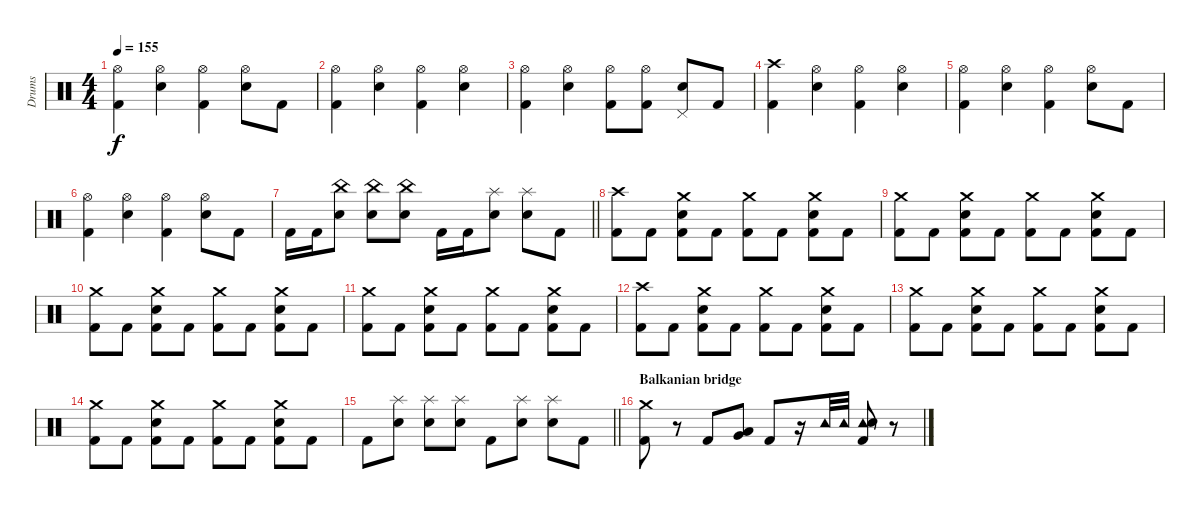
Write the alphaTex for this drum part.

\track ("Drums" "Drums") {instrument percussion}
\staff {score}
\articulation defaults
\ts (4 4)
\tempo 155
\clef neutral
\ks c
("Hi-Hat (open)" "Kick (hit) 2").4{dy f} ("Hi-Hat (open)" "Electric Snare (hit)").4 ("Hi-Hat (open)" "Kick (hit) 2").4 ("Hi-Hat (open)" "Electric Snare (hit)").8 "Kick (hit) 2".8 |
("Hi-Hat (open)" "Kick (hit) 2").4 ("Hi-Hat (open)" "Electric Snare (hit)").4 ("Hi-Hat (open)" "Kick (hit) 2").4 ("Hi-Hat (open)" "Electric Snare (hit)").4 |
("Hi-Hat (open)" "Kick (hit) 2").4 ("Hi-Hat (open)" "Electric Snare (hit)").4 ("Hi-Hat (open)" "Kick (hit) 2").8 ("Hi-Hat (open)" "Kick (hit) 2").8 ("Pedal Hi-Hat (hit)" "Electric Snare (hit)").8 "Kick (hit) 2".8 |
("Crash high (hit)" "Kick (hit) 2").4 ("Hi-Hat (open)" "Electric Snare (hit)").4 ("Hi-Hat (open)" "Kick (hit) 2").4 ("Hi-Hat (open)" "Electric Snare (hit)").4 |
("Hi-Hat (open)" "Kick (hit) 2").4 ("Hi-Hat (open)" "Electric Snare (hit)").4 ("Hi-Hat (open)" "Kick (hit) 2").4 ("Hi-Hat (open)" "Electric Snare (hit)").8 "Kick (hit) 2".8 |
("Hi-Hat (open)" "Kick (hit) 2").4 ("Hi-Hat (open)" "Electric Snare (hit)").4 ("Hi-Hat (open)" "Kick (hit) 2").4 ("Hi-Hat (open)" "Electric Snare (hit)").8 "Kick (hit) 2".8 |
\barLineRight lightlight "Kick (hit) 2".16 "Kick (hit) 2".16
("China (hit)" "Electric Snare (hit)").8 ("China (hit)" "Electric Snare (hit)").8 ("China (hit)" "Electric Snare (hit)").8 "Kick (hit) 2".16 "Kick (hit) 2".16 ("Splash (hit)" "Electric Snare (hit)").8 ("Splash (hit)" "Electric Snare (hit)").8 "Kick (hit) 2".8 |
("Crash high (hit)" "Kick (hit) 2").8 "Kick (hit) 2".8 ("Crash medium (hit)" "Electric Snare (hit)" "Kick (hit) 2").8 "Kick (hit) 2".8 ("Crash medium (hit)" "Kick (hit) 2").8 "Kick (hit) 2".8 ("Crash medium (hit)" "Electric Snare (hit)" "Kick (hit) 2").8 "Kick (hit) 2".8 |
("Crash medium (hit)" "Kick (hit) 2").8 "Kick (hit) 2".8 ("Crash medium (hit)" "Electric Snare (hit)" "Kick (hit) 2").8 "Kick (hit) 2".8 ("Crash medium (hit)" "Kick (hit) 2").8 "Kick (hit) 2".8 ("Crash medium (hit)" "Electric Snare (hit)" "Kick (hit) 2").8 "Kick (hit) 2".8 |
("Crash medium (hit)" "Kick (hit) 2").8 "Kick (hit) 2".8 ("Crash medium (hit)" "Electric Snare (hit)" "Kick (hit) 2").8 "Kick (hit) 2".8 ("Crash medium (hit)" "Kick (hit) 2").8 "Kick (hit) 2".8 ("Crash medium (hit)" "Electric Snare (hit)" "Kick (hit) 2").8 "Kick (hit) 2".8 |
("Crash medium (hit)" "Kick (hit) 2").8 "Kick (hit) 2".8 ("Crash medium (hit)" "Electric Snare (hit)" "Kick (hit) 2").8 "Kick (hit) 2".8 ("Crash medium (hit)" "Kick (hit) 2").8 "Kick (hit) 2".8 ("Crash medium (hit)" "Electric Snare (hit)" "Kick (hit) 2").8 "Kick (hit) 2".8 |
("Crash high (hit)" "Kick (hit) 2").8 "Kick (hit) 2".8 ("Crash medium (hit)" "Electric Snare (hit)" "Kick (hit) 2").8 "Kick (hit) 2".8 ("Crash medium (hit)" "Kick (hit) 2").8 "Kick (hit) 2".8 ("Crash medium (hit)" "Electric Snare (hit)" "Kick (hit) 2").8 "Kick (hit) 2".8 |
("Crash medium (hit)" "Kick (hit) 2").8 "Kick (hit) 2".8 ("Crash medium (hit)" "Electric Snare (hit)" "Kick (hit) 2").8 "Kick (hit) 2".8 ("Crash medium (hit)" "Kick (hit) 2").8 "Kick (hit) 2".8 ("Crash medium (hit)" "Electric Snare (hit)" "Kick (hit) 2").8 "Kick (hit) 2".8 |
("Crash medium (hit)" "Kick (hit) 2").8 "Kick (hit) 2".8 ("Crash medium (hit)" "Electric Snare (hit)" "Kick (hit) 2").8 "Kick (hit) 2".8 ("Crash medium (hit)" "Kick (hit) 2").8 "Kick (hit) 2".8 ("Crash medium (hit)" "Electric Snare (hit)" "Kick (hit) 2").8 "Kick (hit) 2".8 |
\barLineRight lightlight "Kick (hit) 2".8
("Splash (hit)" "Electric Snare (hit)").8 ("Splash (hit)" "Electric Snare (hit)").8 ("Splash (hit)" "Electric Snare (hit)").8 "Kick (hit) 2".8 ("Splash (hit)" "Electric Snare (hit)").8 ("Splash (hit)" "Electric Snare (hit)").8 "Kick (hit) 2".8 |
\section ("" "Balkanian bridge")
("Crash medium (hit)" "Kick (hit) 2").8 r.8 "Kick (hit) 2".8 ("Low Tom (hit)" "Very Low Tom (hit)").8 "Kick (hit) 2".8 r.16 "Tambourine (hit)".32 "Tambourine (hit)".32 ("Tambourine (hit)" "Electric Snare (hit)" "Kick (hit) 2").8 r.8
